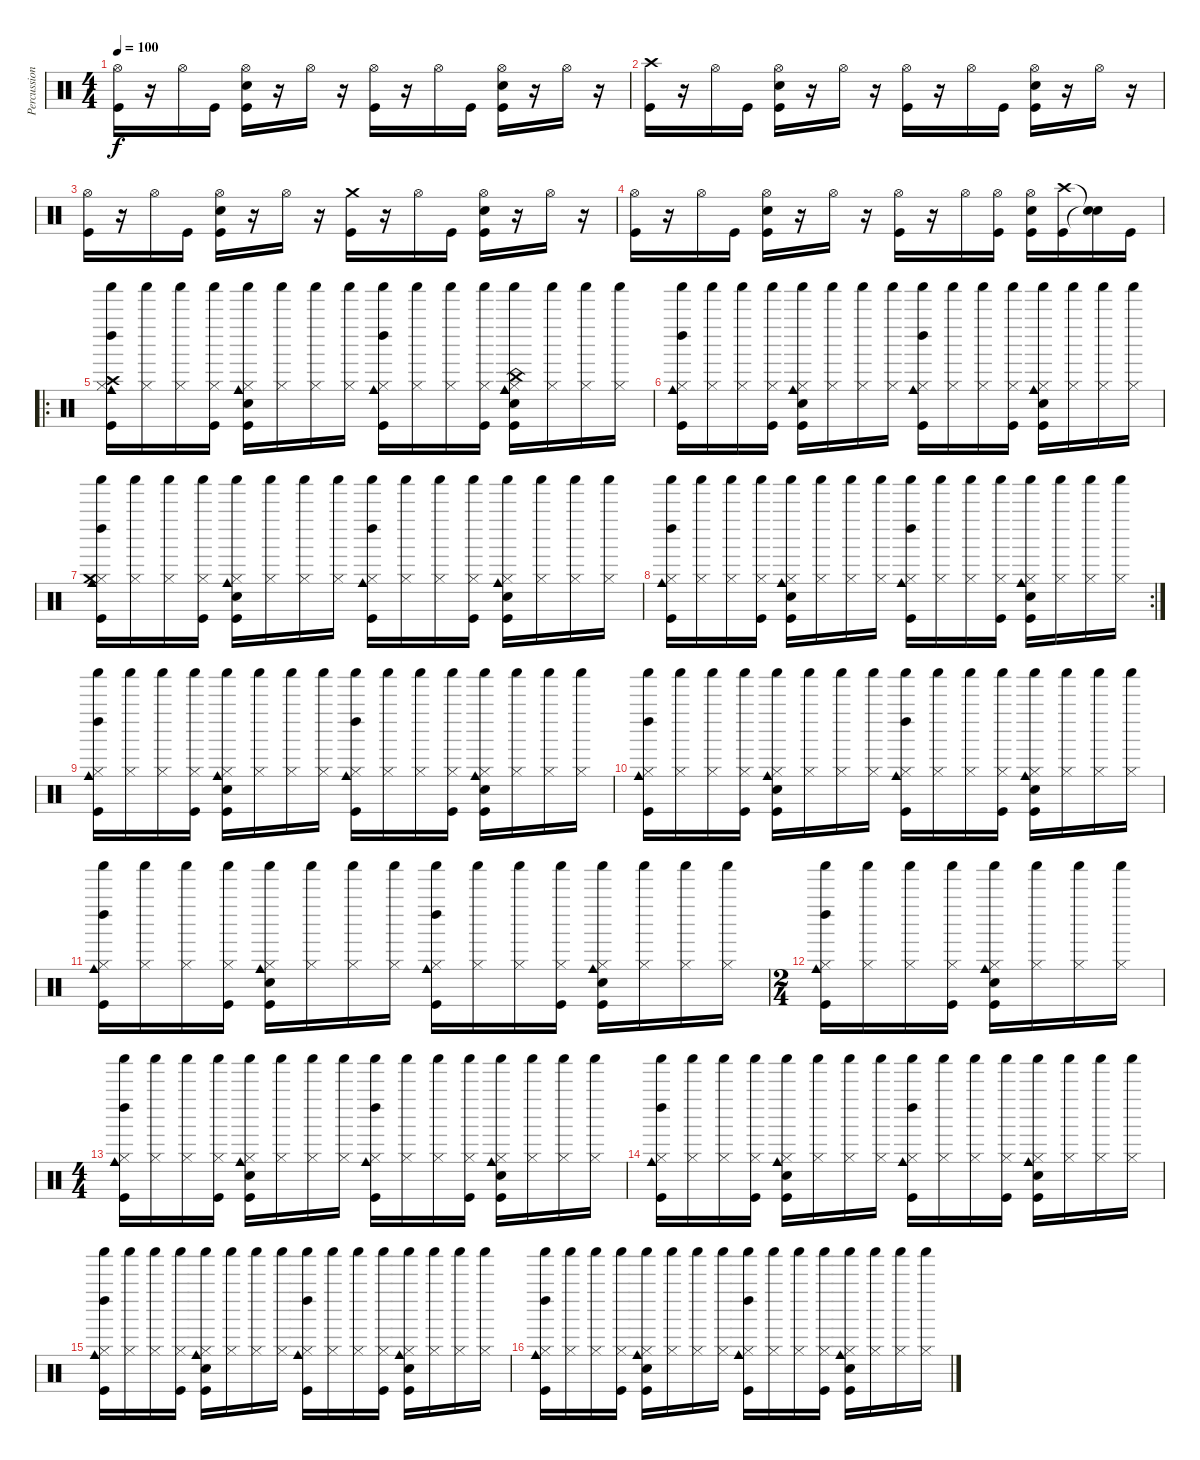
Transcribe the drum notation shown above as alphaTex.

\track ("Percussions" "Percussion") {instrument percussion}
\staff {score}
\articulation defaults
\ts (4 4)
\tempo 100
\clef neutral
\ks c
("Hi-Hat (open)" "Kick (hit)").16{dy f} r.16 "Hi-Hat (open)".16 "Kick (hit)".16 ("Hi-Hat (open)" "Electric Snare (hit)" "Kick (hit)").16 r.16 "Hi-Hat (open)".16 r.16 ("Hi-Hat (open)" "Kick (hit)").16 r.16 "Hi-Hat (open)".16 "Kick (hit)".16 ("Hi-Hat (open)" "Electric Snare (hit)" "Kick (hit)").16 r.16 "Hi-Hat (open)".16 r.16 |
("Crash high (hit)" "Kick (hit)").16 r.16 "Hi-Hat (open)".16 "Kick (hit)".16 ("Hi-Hat (open)" "Electric Snare (hit)" "Kick (hit)").16 r.16 "Hi-Hat (open)".16 r.16 ("Hi-Hat (open)" "Kick (hit)").16 r.16 "Hi-Hat (open)".16 "Kick (hit)".16 ("Hi-Hat (open)" "Electric Snare (hit)" "Kick (hit)").16 r.16 "Hi-Hat (open)".16 r.16 |
("Hi-Hat (open)" "Kick (hit)").16 r.16 "Hi-Hat (open)".16 "Kick (hit)".16 ("Hi-Hat (open)" "Electric Snare (hit)" "Kick (hit)").16 r.16 "Hi-Hat (open)".16 r.16 ("Crash medium (hit)" "Kick (hit)").16 r.16 "Hi-Hat (open)".16 "Kick (hit)".16 ("Hi-Hat (open)" "Electric Snare (hit)" "Kick (hit)").16 r.16 "Hi-Hat (open)".16 r.16 |
("Hi-Hat (open)" "Kick (hit)").16 r.16 "Hi-Hat (open)".16 "Kick (hit)".16 ("Hi-Hat (open)" "Electric Snare (hit)" "Kick (hit)").16 r.16 "Hi-Hat (open)".16 r.16 ("Hi-Hat (open)" "Kick (hit)").16 r.16 "Hi-Hat (open)".16 ("Hi-Hat (open)" "Kick (hit)").16 ("Hi-Hat (open)" "Electric Snare (hit)" "Kick (hit)").16 ("Crash high (hit)" "Kick (hit)").16 ("Snare (hit)"{t} "Snare (hit)"{t}).16 "Kick (hit)".16 |
\ro
("Hi-Hat (closed)" "Crash high (hit)" "Kick (hit)" "Left Maraca (hit)" "Cowbell medium (hit)" "Shaker (hit)").16 ("Hi-Hat (closed)" "Shaker (hit)").16 ("Hi-Hat (closed)" "Shaker (hit)").16 ("Hi-Hat (closed)" "Kick (hit)" "Shaker (hit)").16 ("Hi-Hat (closed)" "Electric Snare (hit)" "Kick (hit)" "Cowbell medium (hit)" "Shaker (hit)").16 ("Hi-Hat (closed)" "Shaker (hit)").16 ("Hi-Hat (closed)" "Shaker (hit)").16 ("Hi-Hat (closed)" "Shaker (hit)").16 ("Hi-Hat (closed)" "Kick (hit)" "Left Maraca (hit)" "Cowbell medium (hit)" "Shaker (hit)").16 ("Hi-Hat (closed)" "Shaker (hit)").16 ("Hi-Hat (closed)" "Shaker (hit)").16 ("Hi-Hat (closed)" "Kick (hit)" "Shaker (hit)").16 ("Hi-Hat (closed)" "Electric Snare (hit)" "Kick (hit)" "China (hit)" "Cowbell medium (hit)" "Shaker (hit)").16 ("Hi-Hat (closed)" "Shaker (hit)").16 ("Hi-Hat (closed)" "Shaker (hit)").16 ("Hi-Hat (closed)" "Shaker (hit)").16 |
("Hi-Hat (closed)" "Kick (hit)" "Left Maraca (hit)" "Cowbell medium (hit)" "Shaker (hit)").16 ("Hi-Hat (closed)" "Shaker (hit)").16 ("Hi-Hat (closed)" "Shaker (hit)").16 ("Hi-Hat (closed)" "Kick (hit)" "Shaker (hit)").16 ("Hi-Hat (closed)" "Electric Snare (hit)" "Kick (hit)" "Cowbell medium (hit)" "Shaker (hit)").16 ("Hi-Hat (closed)" "Shaker (hit)").16 ("Hi-Hat (closed)" "Shaker (hit)").16 ("Hi-Hat (closed)" "Shaker (hit)").16 ("Hi-Hat (closed)" "Kick (hit)" "Left Maraca (hit)" "Cowbell medium (hit)" "Shaker (hit)").16 ("Hi-Hat (closed)" "Shaker (hit)").16 ("Hi-Hat (closed)" "Shaker (hit)").16 ("Hi-Hat (closed)" "Kick (hit)" "Shaker (hit)").16 ("Hi-Hat (closed)" "Electric Snare (hit)" "Kick (hit)" "Cowbell medium (hit)" "Shaker (hit)").16 ("Hi-Hat (closed)" "Shaker (hit)").16 ("Hi-Hat (closed)" "Shaker (hit)").16 ("Hi-Hat (closed)" "Shaker (hit)").16 |
("Hi-Hat (closed)" "Crash medium (hit)" "Kick (hit)" "Left Maraca (hit)" "Cowbell medium (hit)" "Shaker (hit)").16 ("Hi-Hat (closed)" "Shaker (hit)").16 ("Hi-Hat (closed)" "Shaker (hit)").16 ("Hi-Hat (closed)" "Kick (hit)" "Shaker (hit)").16 ("Hi-Hat (closed)" "Electric Snare (hit)" "Kick (hit)" "Cowbell medium (hit)" "Shaker (hit)").16 ("Hi-Hat (closed)" "Shaker (hit)").16 ("Hi-Hat (closed)" "Shaker (hit)").16 ("Hi-Hat (closed)" "Shaker (hit)").16 ("Hi-Hat (closed)" "Kick (hit)" "Left Maraca (hit)" "Cowbell medium (hit)" "Shaker (hit)").16 ("Hi-Hat (closed)" "Shaker (hit)").16 ("Hi-Hat (closed)" "Shaker (hit)").16 ("Hi-Hat (closed)" "Kick (hit)" "Shaker (hit)").16 ("Hi-Hat (closed)" "Electric Snare (hit)" "Kick (hit)" "Cowbell medium (hit)" "Shaker (hit)").16 ("Hi-Hat (closed)" "Shaker (hit)").16 ("Hi-Hat (closed)" "Shaker (hit)").16 ("Hi-Hat (closed)" "Shaker (hit)").16 |
\rc 2
("Hi-Hat (closed)" "Kick (hit)" "Left Maraca (hit)" "Cowbell medium (hit)" "Shaker (hit)").16 ("Hi-Hat (closed)" "Shaker (hit)").16 ("Hi-Hat (closed)" "Shaker (hit)").16 ("Hi-Hat (closed)" "Kick (hit)" "Shaker (hit)").16 ("Hi-Hat (closed)" "Electric Snare (hit)" "Kick (hit)" "Cowbell medium (hit)" "Shaker (hit)").16 ("Hi-Hat (closed)" "Shaker (hit)").16 ("Hi-Hat (closed)" "Shaker (hit)").16 ("Hi-Hat (closed)" "Shaker (hit)").16 ("Hi-Hat (closed)" "Kick (hit)" "Left Maraca (hit)" "Cowbell medium (hit)" "Shaker (hit)").16 ("Hi-Hat (closed)" "Shaker (hit)").16 ("Hi-Hat (closed)" "Shaker (hit)").16 ("Hi-Hat (closed)" "Kick (hit)" "Shaker (hit)").16 ("Hi-Hat (closed)" "Electric Snare (hit)" "Kick (hit)" "Cowbell medium (hit)" "Shaker (hit)").16 ("Hi-Hat (closed)" "Shaker (hit)").16 ("Hi-Hat (closed)" "Shaker (hit)").16 ("Hi-Hat (closed)" "Shaker (hit)").16 |
("Hi-Hat (closed)" "Kick (hit)" "Left Maraca (hit)" "Cowbell medium (hit)" "Shaker (hit)").16 ("Hi-Hat (closed)" "Shaker (hit)").16 ("Hi-Hat (closed)" "Shaker (hit)").16 ("Hi-Hat (closed)" "Kick (hit)" "Shaker (hit)").16 ("Hi-Hat (closed)" "Electric Snare (hit)" "Kick (hit)" "Cowbell medium (hit)" "Shaker (hit)").16 ("Hi-Hat (closed)" "Shaker (hit)").16 ("Hi-Hat (closed)" "Shaker (hit)").16 ("Hi-Hat (closed)" "Shaker (hit)").16 ("Hi-Hat (closed)" "Kick (hit)" "Left Maraca (hit)" "Cowbell medium (hit)" "Shaker (hit)").16 ("Hi-Hat (closed)" "Shaker (hit)").16 ("Hi-Hat (closed)" "Shaker (hit)").16 ("Hi-Hat (closed)" "Kick (hit)" "Shaker (hit)").16 ("Hi-Hat (closed)" "Electric Snare (hit)" "Kick (hit)" "Cowbell medium (hit)" "Shaker (hit)").16 ("Hi-Hat (closed)" "Shaker (hit)").16 ("Hi-Hat (closed)" "Shaker (hit)").16 ("Hi-Hat (closed)" "Shaker (hit)").16 |
("Hi-Hat (closed)" "Kick (hit)" "Left Maraca (hit)" "Cowbell medium (hit)" "Shaker (hit)").16 ("Hi-Hat (closed)" "Shaker (hit)").16 ("Hi-Hat (closed)" "Shaker (hit)").16 ("Hi-Hat (closed)" "Kick (hit)" "Shaker (hit)").16 ("Hi-Hat (closed)" "Electric Snare (hit)" "Kick (hit)" "Cowbell medium (hit)" "Shaker (hit)").16 ("Hi-Hat (closed)" "Shaker (hit)").16 ("Hi-Hat (closed)" "Shaker (hit)").16 ("Hi-Hat (closed)" "Shaker (hit)").16 ("Hi-Hat (closed)" "Kick (hit)" "Left Maraca (hit)" "Cowbell medium (hit)" "Shaker (hit)").16 ("Hi-Hat (closed)" "Shaker (hit)").16 ("Hi-Hat (closed)" "Shaker (hit)").16 ("Hi-Hat (closed)" "Kick (hit)" "Shaker (hit)").16 ("Hi-Hat (closed)" "Electric Snare (hit)" "Kick (hit)" "Cowbell medium (hit)" "Shaker (hit)").16 ("Hi-Hat (closed)" "Shaker (hit)").16 ("Hi-Hat (closed)" "Shaker (hit)").16 ("Hi-Hat (closed)" "Shaker (hit)").16 |
("Hi-Hat (closed)" "Kick (hit)" "Left Maraca (hit)" "Cowbell medium (hit)" "Shaker (hit)").16 ("Hi-Hat (closed)" "Shaker (hit)").16 ("Hi-Hat (closed)" "Shaker (hit)").16 ("Hi-Hat (closed)" "Kick (hit)" "Shaker (hit)").16 ("Hi-Hat (closed)" "Electric Snare (hit)" "Kick (hit)" "Cowbell medium (hit)" "Shaker (hit)").16 ("Hi-Hat (closed)" "Shaker (hit)").16 ("Hi-Hat (closed)" "Shaker (hit)").16 ("Hi-Hat (closed)" "Shaker (hit)").16 ("Hi-Hat (closed)" "Kick (hit)" "Left Maraca (hit)" "Cowbell medium (hit)" "Shaker (hit)").16 ("Hi-Hat (closed)" "Shaker (hit)").16 ("Hi-Hat (closed)" "Shaker (hit)").16 ("Hi-Hat (closed)" "Kick (hit)" "Shaker (hit)").16 ("Hi-Hat (closed)" "Electric Snare (hit)" "Kick (hit)" "Cowbell medium (hit)" "Shaker (hit)").16 ("Hi-Hat (closed)" "Shaker (hit)").16 ("Hi-Hat (closed)" "Shaker (hit)").16 ("Hi-Hat (closed)" "Shaker (hit)").16 |
\ts (2 4)
("Hi-Hat (closed)" "Kick (hit)" "Left Maraca (hit)" "Cowbell medium (hit)" "Shaker (hit)").16 ("Hi-Hat (closed)" "Shaker (hit)").16 ("Hi-Hat (closed)" "Shaker (hit)").16 ("Hi-Hat (closed)" "Kick (hit)" "Shaker (hit)").16 ("Hi-Hat (closed)" "Electric Snare (hit)" "Kick (hit)" "Cowbell medium (hit)" "Shaker (hit)").16 ("Hi-Hat (closed)" "Shaker (hit)").16 ("Hi-Hat (closed)" "Shaker (hit)").16 ("Hi-Hat (closed)" "Shaker (hit)").16 |
\ts (4 4)
("Hi-Hat (closed)" "Kick (hit)" "Left Maraca (hit)" "Cowbell medium (hit)" "Shaker (hit)").16 ("Hi-Hat (closed)" "Shaker (hit)").16 ("Hi-Hat (closed)" "Shaker (hit)").16 ("Hi-Hat (closed)" "Kick (hit)" "Shaker (hit)").16 ("Hi-Hat (closed)" "Electric Snare (hit)" "Kick (hit)" "Cowbell medium (hit)" "Shaker (hit)").16 ("Hi-Hat (closed)" "Shaker (hit)").16 ("Hi-Hat (closed)" "Shaker (hit)").16 ("Hi-Hat (closed)" "Shaker (hit)").16 ("Hi-Hat (closed)" "Kick (hit)" "Left Maraca (hit)" "Cowbell medium (hit)" "Shaker (hit)").16 ("Hi-Hat (closed)" "Shaker (hit)").16 ("Hi-Hat (closed)" "Shaker (hit)").16 ("Hi-Hat (closed)" "Kick (hit)" "Shaker (hit)").16 ("Hi-Hat (closed)" "Electric Snare (hit)" "Kick (hit)" "Cowbell medium (hit)" "Shaker (hit)").16 ("Hi-Hat (closed)" "Shaker (hit)").16 ("Hi-Hat (closed)" "Shaker (hit)").16 ("Hi-Hat (closed)" "Shaker (hit)").16 |
("Hi-Hat (closed)" "Kick (hit)" "Left Maraca (hit)" "Cowbell medium (hit)" "Shaker (hit)").16 ("Hi-Hat (closed)" "Shaker (hit)").16 ("Hi-Hat (closed)" "Shaker (hit)").16 ("Hi-Hat (closed)" "Kick (hit)" "Shaker (hit)").16 ("Hi-Hat (closed)" "Electric Snare (hit)" "Kick (hit)" "Cowbell medium (hit)" "Shaker (hit)").16 ("Hi-Hat (closed)" "Shaker (hit)").16 ("Hi-Hat (closed)" "Shaker (hit)").16 ("Hi-Hat (closed)" "Shaker (hit)").16 ("Hi-Hat (closed)" "Kick (hit)" "Left Maraca (hit)" "Cowbell medium (hit)" "Shaker (hit)").16 ("Hi-Hat (closed)" "Shaker (hit)").16 ("Hi-Hat (closed)" "Shaker (hit)").16 ("Hi-Hat (closed)" "Kick (hit)" "Shaker (hit)").16 ("Hi-Hat (closed)" "Electric Snare (hit)" "Kick (hit)" "Cowbell medium (hit)" "Shaker (hit)").16 ("Hi-Hat (closed)" "Shaker (hit)").16 ("Hi-Hat (closed)" "Shaker (hit)").16 ("Hi-Hat (closed)" "Shaker (hit)").16 |
("Hi-Hat (closed)" "Kick (hit)" "Left Maraca (hit)" "Cowbell medium (hit)" "Shaker (hit)").16 ("Hi-Hat (closed)" "Shaker (hit)").16 ("Hi-Hat (closed)" "Shaker (hit)").16 ("Hi-Hat (closed)" "Kick (hit)" "Shaker (hit)").16 ("Hi-Hat (closed)" "Electric Snare (hit)" "Kick (hit)" "Cowbell medium (hit)" "Shaker (hit)").16 ("Hi-Hat (closed)" "Shaker (hit)").16 ("Hi-Hat (closed)" "Shaker (hit)").16 ("Hi-Hat (closed)" "Shaker (hit)").16 ("Hi-Hat (closed)" "Kick (hit)" "Left Maraca (hit)" "Cowbell medium (hit)" "Shaker (hit)").16 ("Hi-Hat (closed)" "Shaker (hit)").16 ("Hi-Hat (closed)" "Shaker (hit)").16 ("Hi-Hat (closed)" "Kick (hit)" "Shaker (hit)").16 ("Hi-Hat (closed)" "Electric Snare (hit)" "Kick (hit)" "Cowbell medium (hit)" "Shaker (hit)").16 ("Hi-Hat (closed)" "Shaker (hit)").16 ("Hi-Hat (closed)" "Shaker (hit)").16 ("Hi-Hat (closed)" "Shaker (hit)").16 |
("Hi-Hat (closed)" "Kick (hit)" "Left Maraca (hit)" "Cowbell medium (hit)" "Shaker (hit)").16 ("Hi-Hat (closed)" "Shaker (hit)").16 ("Hi-Hat (closed)" "Shaker (hit)").16 ("Hi-Hat (closed)" "Kick (hit)" "Shaker (hit)").16 ("Hi-Hat (closed)" "Electric Snare (hit)" "Kick (hit)" "Cowbell medium (hit)" "Shaker (hit)").16 ("Hi-Hat (closed)" "Shaker (hit)").16 ("Hi-Hat (closed)" "Shaker (hit)").16 ("Hi-Hat (closed)" "Shaker (hit)").16 ("Hi-Hat (closed)" "Kick (hit)" "Left Maraca (hit)" "Cowbell medium (hit)" "Shaker (hit)").16 ("Hi-Hat (closed)" "Shaker (hit)").16 ("Hi-Hat (closed)" "Shaker (hit)").16 ("Hi-Hat (closed)" "Kick (hit)" "Shaker (hit)").16 ("Hi-Hat (closed)" "Electric Snare (hit)" "Kick (hit)" "Cowbell medium (hit)" "Shaker (hit)").16 ("Hi-Hat (closed)" "Shaker (hit)").16 ("Hi-Hat (closed)" "Shaker (hit)").16 ("Hi-Hat (closed)" "Shaker (hit)").16
